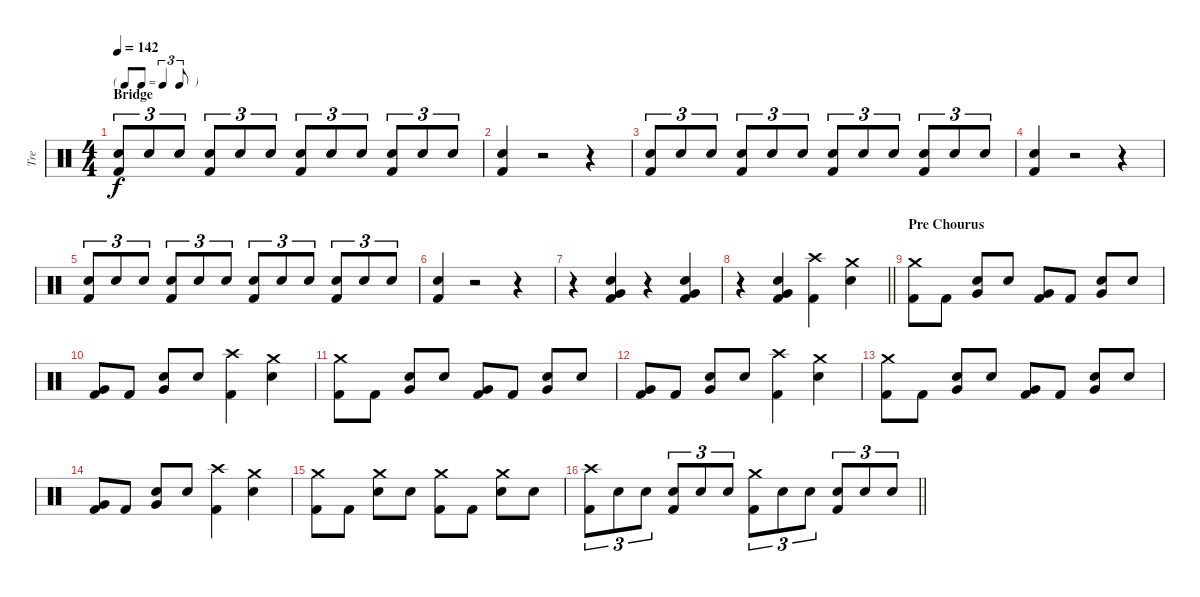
\track ("Tre" "Tre") {instrument percussion}
\staff {score}
\articulation defaults
\ts (4 4)
\tf triplet8th
\section ("" "Bridge")
\tempo 142
\clef neutral
\ks c
("Snare (hit) 2" "Kick (hit) 2").8{tu (3 2) dy f} "Snare (hit) 2".8{tu (3 2)} "Snare (hit) 2".8{tu (3 2)} ("Snare (hit) 2" "Kick (hit) 2").8{tu (3 2)} "Snare (hit) 2".8{tu (3 2)} "Snare (hit) 2".8{tu (3 2)} ("Snare (hit) 2" "Kick (hit) 2").8{tu (3 2)} "Snare (hit) 2".8{tu (3 2)} "Snare (hit) 2".8{tu (3 2)} ("Snare (hit) 2" "Kick (hit) 2").8{tu (3 2)} "Snare (hit) 2".8{tu (3 2)} "Snare (hit) 2".8{tu (3 2)} |
("Snare (hit) 2" "Kick (hit) 2").4 r.2 r.4 |
("Snare (hit) 2" "Kick (hit) 2").8{tu (3 2)} "Snare (hit) 2".8{tu (3 2)} "Snare (hit) 2".8{tu (3 2)} ("Snare (hit) 2" "Kick (hit) 2").8{tu (3 2)} "Snare (hit) 2".8{tu (3 2)} "Snare (hit) 2".8{tu (3 2)} ("Snare (hit) 2" "Kick (hit) 2").8{tu (3 2)} "Snare (hit) 2".8{tu (3 2)} "Snare (hit) 2".8{tu (3 2)} ("Snare (hit) 2" "Kick (hit) 2").8{tu (3 2)} "Snare (hit) 2".8{tu (3 2)} "Snare (hit) 2".8{tu (3 2)} |
("Snare (hit) 2" "Kick (hit) 2").4 r.2 r.4 |
("Snare (hit) 2" "Kick (hit) 2").8{tu (3 2)} "Snare (hit) 2".8{tu (3 2)} "Snare (hit) 2".8{tu (3 2)} ("Snare (hit) 2" "Kick (hit) 2").8{tu (3 2)} "Snare (hit) 2".8{tu (3 2)} "Snare (hit) 2".8{tu (3 2)} ("Snare (hit) 2" "Kick (hit) 2").8{tu (3 2)} "Snare (hit) 2".8{tu (3 2)} "Snare (hit) 2".8{tu (3 2)} ("Snare (hit) 2" "Kick (hit) 2").8{tu (3 2)} "Snare (hit) 2".8{tu (3 2)} "Snare (hit) 2".8{tu (3 2)} |
("Snare (hit) 2" "Kick (hit) 2").4 r.2 r.4 |
r.4 ("Snare (hit) 2" "Very Low Tom (hit)" "Kick (hit) 2").4 r.4 ("Snare (hit) 2" "Very Low Tom (hit)" "Kick (hit) 2").4 |
\barLineRight lightlight
r.4 ("Snare (hit) 2" "Very Low Tom (hit)" "Kick (hit) 2").4 ("Crash high (hit)" "Kick (hit) 2").4 ("Crash medium (hit)" "Snare (hit) 2").4 |
\section ("" "Pre Chourus")
("Crash medium (hit)" "Kick (hit) 2").8 "Kick (hit) 2".8 ("Snare (hit) 2" "Very Low Tom (hit)").8 "Snare (hit) 2".8 ("Very Low Tom (hit)" "Kick (hit) 2").8 "Kick (hit) 2".8 ("Snare (hit) 2" "Very Low Tom (hit)").8 "Snare (hit) 2".8 |
("Very Low Tom (hit)" "Kick (hit) 2").8 "Kick (hit) 2".8 ("Snare (hit) 2" "Very Low Tom (hit)").8 "Snare (hit) 2".8 ("Crash high (hit)" "Kick (hit) 2").4 ("Crash medium (hit)" "Snare (hit) 2").4 |
("Crash medium (hit)" "Kick (hit) 2").8 "Kick (hit) 2".8 ("Snare (hit) 2" "Very Low Tom (hit)").8 "Snare (hit) 2".8 ("Very Low Tom (hit)" "Kick (hit) 2").8 "Kick (hit) 2".8 ("Snare (hit) 2" "Very Low Tom (hit)").8 "Snare (hit) 2".8 |
("Very Low Tom (hit)" "Kick (hit) 2").8 "Kick (hit) 2".8 ("Snare (hit) 2" "Very Low Tom (hit)").8 "Snare (hit) 2".8 ("Crash high (hit)" "Kick (hit) 2").4 ("Crash medium (hit)" "Snare (hit) 2").4 |
("Crash medium (hit)" "Kick (hit) 2").8 "Kick (hit) 2".8 ("Snare (hit) 2" "Very Low Tom (hit)").8 "Snare (hit) 2".8 ("Very Low Tom (hit)" "Kick (hit) 2").8 "Kick (hit) 2".8 ("Snare (hit) 2" "Very Low Tom (hit)").8 "Snare (hit) 2".8 |
("Very Low Tom (hit)" "Kick (hit) 2").8 "Kick (hit) 2".8 ("Snare (hit) 2" "Very Low Tom (hit)").8 "Snare (hit) 2".8 ("Crash high (hit)" "Kick (hit) 2").4 ("Crash medium (hit)" "Snare (hit) 2").4 |
("Crash medium (hit)" "Kick (hit) 2").8 "Kick (hit) 2".8 ("Crash medium (hit)" "Snare (hit) 2").8 "Snare (hit) 2".8 ("Crash medium (hit)" "Kick (hit) 2").8 "Kick (hit) 2".8 ("Crash medium (hit)" "Snare (hit) 2").8 "Snare (hit) 2".8 |
\barLineRight lightlight
("Crash high (hit)" "Kick (hit) 2").8{tu (3 2)} "Snare (hit) 2".8{tu (3 2)} "Snare (hit) 2".8{tu (3 2)} ("Snare (hit) 2" "Kick (hit) 2").8{tu (3 2)} "Snare (hit) 2".8{tu (3 2)} "Snare (hit) 2".8{tu (3 2)} ("Crash medium (hit)" "Kick (hit) 2").8{tu (3 2)} "Snare (hit) 2".8{tu (3 2)} "Snare (hit) 2".8{tu (3 2)} ("Snare (hit) 2" "Kick (hit) 2").8{tu (3 2)} "Snare (hit) 2".8{tu (3 2)} "Snare (hit) 2".8{tu (3 2)}
